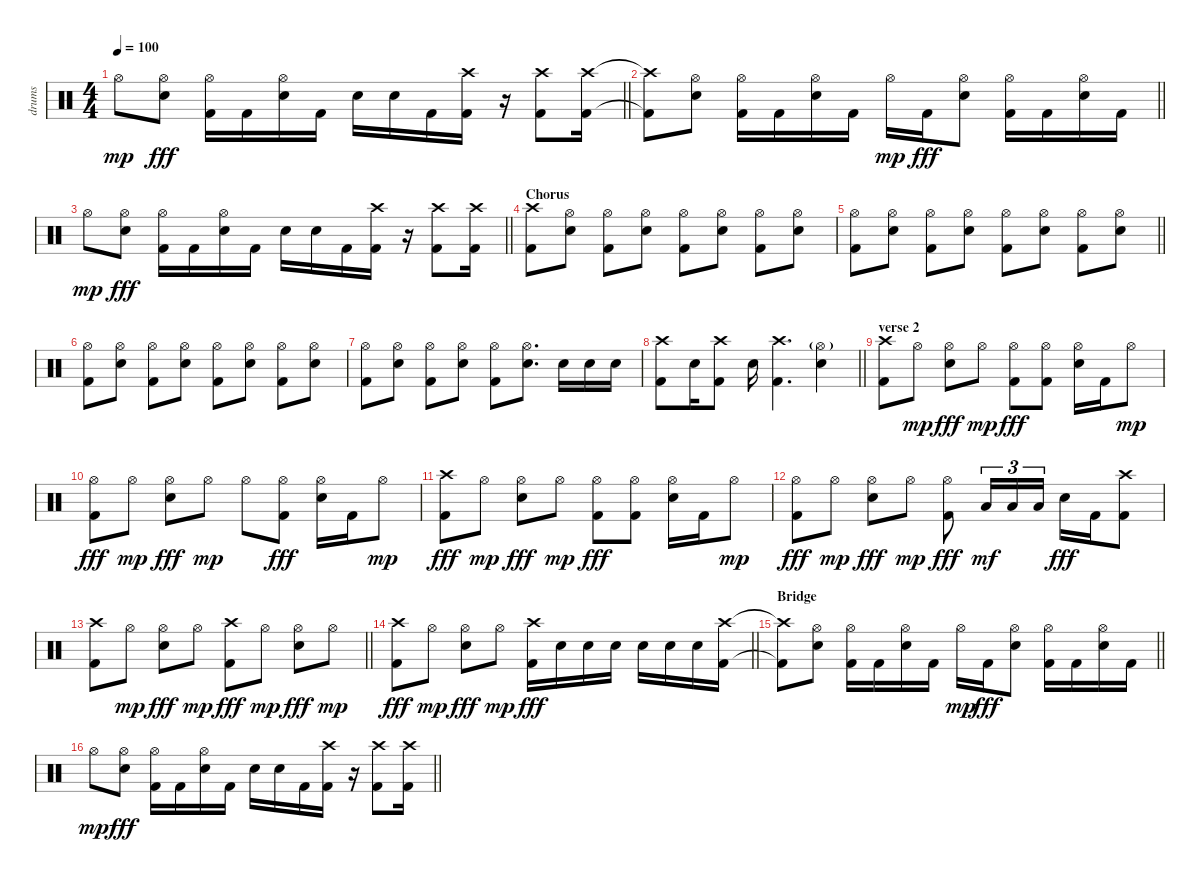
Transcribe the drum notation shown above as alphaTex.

\track ("drums" "drums") {instrument percussion}
\staff {score}
\articulation defaults
\ts (4 4)
\tempo 100
\clef neutral
\barLineRight lightlight
\ks c "Hi-Hat (open)".8{dy mp}
("Hi-Hat (open)" "Snare (hit) 2").8{dy fff} ("Hi-Hat (open)" "Kick (hit) 2").16 "Kick (hit) 2".16 ("Hi-Hat (open)" "Snare (hit) 2").16 "Kick (hit) 2".16 "Snare (hit) 2".16 "Snare (hit) 2".16 "Kick (hit) 2".16 ("Crash high (hit)" "Kick (hit) 2").16 r.16 ("Crash high (hit)" "Kick (hit) 2").8 ("Crash high (hit)" "Kick (hit) 2").16 |
\barLineRight lightlight
("Crash high (hit)"{t} "Kick (hit) 2"{t}).8 ("Hi-Hat (open)" "Snare (hit) 2").8 ("Hi-Hat (open)" "Kick (hit) 2").16 "Kick (hit) 2".16 ("Hi-Hat (open)" "Snare (hit) 2").16 "Kick (hit) 2".16 "Hi-Hat (open)".16{dy mp} "Kick (hit) 2".16{dy fff} ("Hi-Hat (open)" "Snare (hit) 2").8 ("Hi-Hat (open)" "Kick (hit) 2").16 "Kick (hit) 2".16 ("Hi-Hat (open)" "Snare (hit) 2").16 "Kick (hit) 2".16 |
\barLineRight lightlight "Hi-Hat (open)".8{dy mp}
("Hi-Hat (open)" "Snare (hit) 2").8{dy fff} ("Hi-Hat (open)" "Kick (hit) 2").16 "Kick (hit) 2".16 ("Hi-Hat (open)" "Snare (hit) 2").16 "Kick (hit) 2".16 "Snare (hit) 2".16 "Snare (hit) 2".16 "Kick (hit) 2".16 ("Crash high (hit)" "Kick (hit) 2").16 r.16 ("Crash high (hit)" "Kick (hit) 2").8 ("Crash high (hit)" "Kick (hit) 2").16 |
\section ("" "Chorus")
("Crash high (hit)" "Kick (hit) 2").8 ("Hi-Hat (open)" "Snare (hit) 2").8 ("Hi-Hat (open)" "Kick (hit) 2").8 ("Hi-Hat (open)" "Snare (hit) 2").8 ("Hi-Hat (open)" "Kick (hit) 2").8 ("Hi-Hat (open)" "Snare (hit) 2").8 ("Hi-Hat (open)" "Kick (hit) 2").8 ("Hi-Hat (open)" "Snare (hit) 2").8 |
\barLineRight lightlight
("Hi-Hat (open)" "Kick (hit) 2").8 ("Hi-Hat (open)" "Snare (hit) 2").8 ("Hi-Hat (open)" "Kick (hit) 2").8 ("Hi-Hat (open)" "Snare (hit) 2").8 ("Hi-Hat (open)" "Kick (hit) 2").8 ("Hi-Hat (open)" "Snare (hit) 2").8 ("Hi-Hat (open)" "Kick (hit) 2").8 ("Hi-Hat (open)" "Snare (hit) 2").8 |
("Hi-Hat (open)" "Kick (hit) 2").8 ("Hi-Hat (open)" "Snare (hit) 2").8 ("Hi-Hat (open)" "Kick (hit) 2").8 ("Hi-Hat (open)" "Snare (hit) 2").8 ("Hi-Hat (open)" "Kick (hit) 2").8 ("Hi-Hat (open)" "Snare (hit) 2").8 ("Hi-Hat (open)" "Kick (hit) 2").8 ("Hi-Hat (open)" "Snare (hit) 2").8 |
("Hi-Hat (open)" "Kick (hit) 2").8 ("Hi-Hat (open)" "Snare (hit) 2").8 ("Hi-Hat (open)" "Kick (hit) 2").8 ("Hi-Hat (open)" "Snare (hit) 2").8 ("Hi-Hat (open)" "Kick (hit) 2").8 ("Hi-Hat (open)" "Snare (hit) 2").8{d} "Snare (hit) 2".16 "Snare (hit) 2".16 "Snare (hit) 2".16 |
\barLineRight lightlight
("Crash high (hit)" "Kick (hit) 2").8 "Snare (hit) 2".16 ("Crash high (hit)" "Kick (hit) 2").8 "Snare (hit) 2".16 ("Crash high (hit)" "Kick (hit) 2").4{d} ("Hi-Hat (open)"{g} "Snare (hit) 2").4 |
\section ("" "verse 2")
("Crash high (hit)" "Kick (hit) 2").8 "Hi-Hat (open)".8{dy mp} ("Hi-Hat (open)" "Snare (hit) 2").8{dy fff} "Hi-Hat (open)".8{dy mp} ("Hi-Hat (open)" "Kick (hit) 2").8{dy fff} ("Hi-Hat (open)" "Kick (hit) 2").8 ("Hi-Hat (open)" "Snare (hit) 2").16 "Kick (hit) 2".16 "Hi-Hat (open)".8{dy mp} |
("Hi-Hat (open)" "Kick (hit) 2").8{dy fff} "Hi-Hat (open)".8{dy mp} ("Hi-Hat (open)" "Snare (hit) 2").8{dy fff} "Hi-Hat (open)".8{dy mp} "Hi-Hat (open)".8 ("Hi-Hat (open)" "Kick (hit) 2").8{dy fff} ("Hi-Hat (open)" "Snare (hit) 2").16 "Kick (hit) 2".16 "Hi-Hat (open)".8{dy mp} |
("Crash high (hit)" "Kick (hit) 2").8{dy fff} "Hi-Hat (open)".8{dy mp} ("Hi-Hat (open)" "Snare (hit) 2").8{dy fff} "Hi-Hat (open)".8{dy mp} ("Hi-Hat (open)" "Kick (hit) 2").8{dy fff} ("Hi-Hat (open)" "Kick (hit) 2").8 ("Hi-Hat (open)" "Snare (hit) 2").16 "Kick (hit) 2".16 "Hi-Hat (open)".8{dy mp} |
("Hi-Hat (open)" "Kick (hit) 2").8{dy fff} "Hi-Hat (open)".8{dy mp} ("Hi-Hat (open)" "Snare (hit) 2").8{dy fff} "Hi-Hat (open)".8{dy mp} ("Hi-Hat (open)" "Kick (hit) 2").8{dy fff} "Low Tom (hit)".16{tu (3 2) dy mf} "Low Tom (hit)".16{tu (3 2)} "Low Tom (hit)".16{tu (3 2)} "Snare (hit) 2".16{dy fff} "Kick (hit) 2".16 ("Crash high (hit)" "Kick (hit) 2").8 |
\barLineRight lightlight
("Crash high (hit)" "Kick (hit) 2").8 "Hi-Hat (open)".8{dy mp} ("Hi-Hat (open)" "Snare (hit) 2").8{dy fff} "Hi-Hat (open)".8{dy mp} ("Crash high (hit)" "Kick (hit) 2").8{dy fff} "Hi-Hat (open)".8{dy mp} ("Hi-Hat (open)" "Snare (hit) 2").8{dy fff} "Hi-Hat (open)".8{dy mp} |
\barLineRight lightlight
("Crash high (hit)" "Kick (hit) 2").8{dy fff} "Hi-Hat (open)".8{dy mp} ("Hi-Hat (open)" "Snare (hit) 2").8{dy fff} "Hi-Hat (open)".8{dy mp} ("Crash high (hit)" "Kick (hit) 2").16{dy fff} "Snare (hit) 2".16 "Snare (hit) 2".16 "Snare (hit) 2".16 "Snare (hit) 2".16 "Snare (hit) 2".16 "Snare (hit) 2".16 ("Crash high (hit)" "Kick (hit) 2").16 |
\section ("" "Bridge")
\barLineRight lightlight
("Crash high (hit)"{t} "Kick (hit) 2"{t}).8 ("Hi-Hat (open)" "Snare (hit) 2").8 ("Hi-Hat (open)" "Kick (hit) 2").16 "Kick (hit) 2".16 ("Hi-Hat (open)" "Snare (hit) 2").16 "Kick (hit) 2".16 "Hi-Hat (open)".16{dy mp} "Kick (hit) 2".16{dy fff} ("Hi-Hat (open)" "Snare (hit) 2").8 ("Hi-Hat (open)" "Kick (hit) 2").16 "Kick (hit) 2".16 ("Hi-Hat (open)" "Snare (hit) 2").16 "Kick (hit) 2".16 |
\barLineRight lightlight "Hi-Hat (open)".8{dy mp}
("Hi-Hat (open)" "Snare (hit) 2").8{dy fff} ("Hi-Hat (open)" "Kick (hit) 2").16 "Kick (hit) 2".16 ("Hi-Hat (open)" "Snare (hit) 2").16 "Kick (hit) 2".16 "Snare (hit) 2".16 "Snare (hit) 2".16 "Kick (hit) 2".16 ("Crash high (hit)" "Kick (hit) 2").16 r.16 ("Crash high (hit)" "Kick (hit) 2").8 ("Crash high (hit)" "Kick (hit) 2").16
